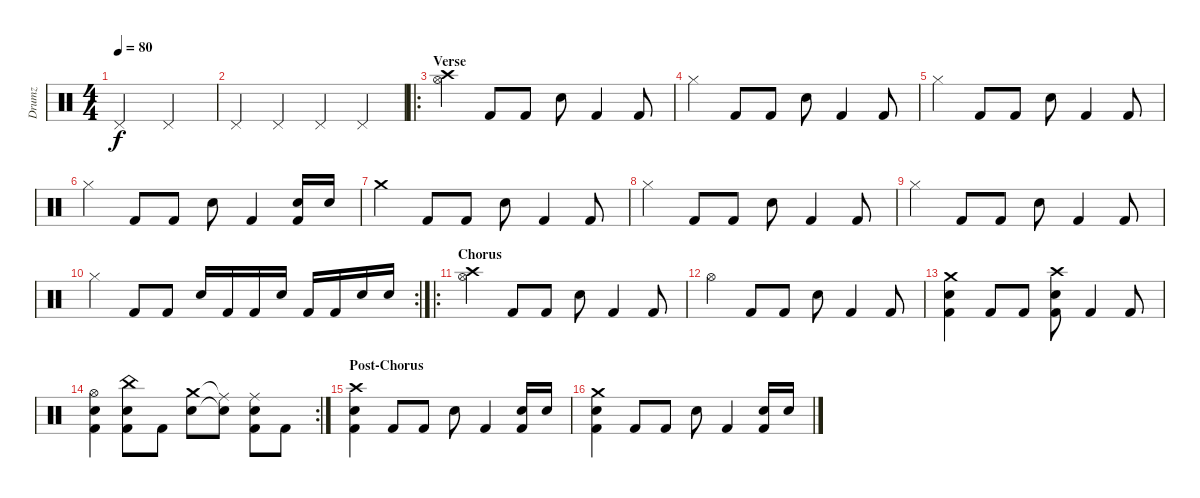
\track ("Drumz" "Drumz") {instrument percussion}
\staff {score}
\articulation defaults
\ts (4 4)
\tempo 80
\clef neutral
\ks c "Pedal Hi-Hat (hit)".2{dy f} "Pedal Hi-Hat (hit)".2
|
"Pedal Hi-Hat (hit)".4 "Pedal Hi-Hat (hit)".4 "Pedal Hi-Hat (hit)".4 "Pedal Hi-Hat (hit)".4 |
\ro
\section ("" "Verse")
("Hi-Hat (open)" "Crash high (hit)").4{volume 7} "Kick (hit) 2".8 "Kick (hit) 2".8 "Snare (hit) 2".8 "Kick (hit) 2".4 "Kick (hit) 2".8 |
"Hi-Hat (closed)".4 "Kick (hit) 2".8 "Kick (hit) 2".8 "Snare (hit) 2".8 "Kick (hit) 2".4 "Kick (hit) 2".8 |
"Hi-Hat (closed)".4 "Kick (hit) 2".8 "Kick (hit) 2".8 "Snare (hit) 2".8 "Kick (hit) 2".4 "Kick (hit) 2".8 |
"Hi-Hat (closed)".4 "Kick (hit) 2".8 "Kick (hit) 2".8 "Snare (hit) 2".8 "Kick (hit) 2".4 ("Snare (hit) 2" "Kick (hit) 2").16 "Snare (hit) 2".16 |
"Crash medium (hit)".4 "Kick (hit) 2".8 "Kick (hit) 2".8 "Snare (hit) 2".8 "Kick (hit) 2".4 "Kick (hit) 2".8 |
"Hi-Hat (closed)".4 "Kick (hit) 2".8 "Kick (hit) 2".8 "Snare (hit) 2".8 "Kick (hit) 2".4 "Kick (hit) 2".8 |
"Hi-Hat (closed)".4 "Kick (hit) 2".8 "Kick (hit) 2".8 "Snare (hit) 2".8 "Kick (hit) 2".4 "Kick (hit) 2".8 |
\rc 2 "Hi-Hat (closed)".4 "Kick (hit) 2".8 "Kick (hit) 2".8 "Snare (hit) 2".16 "Kick (hit) 2".16 "Kick (hit) 2".16 "Snare (hit) 2".16 "Kick (hit) 2".16 "Kick (hit) 2".16 "Snare (hit) 2".16 "Snare (hit) 2".16
|
\ro
\section ("" "Chorus")
("Hi-Hat (open)" "Crash high (hit)").4{volume 16} "Kick (hit) 2".8 "Kick (hit) 2".8 "Snare (hit) 2".8 "Kick (hit) 2".4 "Kick (hit) 2".8 |
"Hi-Hat (open)".4 "Kick (hit) 2".8 "Kick (hit) 2".8 "Snare (hit) 2".8 "Kick (hit) 2".4 "Kick (hit) 2".8 |
("Crash medium (hit)" "Snare (hit) 2" "Kick (hit) 2").4 "Kick (hit) 2".8 "Kick (hit) 2".8 ("Crash high (hit)" "Snare (hit) 2" "Kick (hit) 2").8 "Kick (hit) 2".4 "Kick (hit) 2".8 |
\rc 2
("Hi-Hat (open)" "Snare (hit) 2" "Kick (hit) 2").4 ("China (hit)" "Snare (hit) 2" "Kick (hit) 2").8 "Kick (hit) 2".8 ("Crash medium (hit)" "Snare (hit) 2").8 ("Ride (middle)"{t} "Snare (hit) 2"{t}).8 ("Ride (middle)" "Snare (hit) 2" "Kick (hit) 2").8 "Kick (hit) 2".8 |
\section ("" "Post-Chorus")
("Crash high (hit)" "Snare (hit) 2" "Kick (hit) 2").4 "Kick (hit) 2".8 "Kick (hit) 2".8 "Snare (hit) 2".8 "Kick (hit) 2".4 ("Snare (hit) 2" "Kick (hit) 2").16 "Snare (hit) 2".16 |
("Crash medium (hit)" "Snare (hit) 2" "Kick (hit) 2").4 "Kick (hit) 2".8 "Kick (hit) 2".8 "Snare (hit) 2".8 "Kick (hit) 2".4 ("Snare (hit) 2" "Kick (hit) 2").16 "Snare (hit) 2".16
